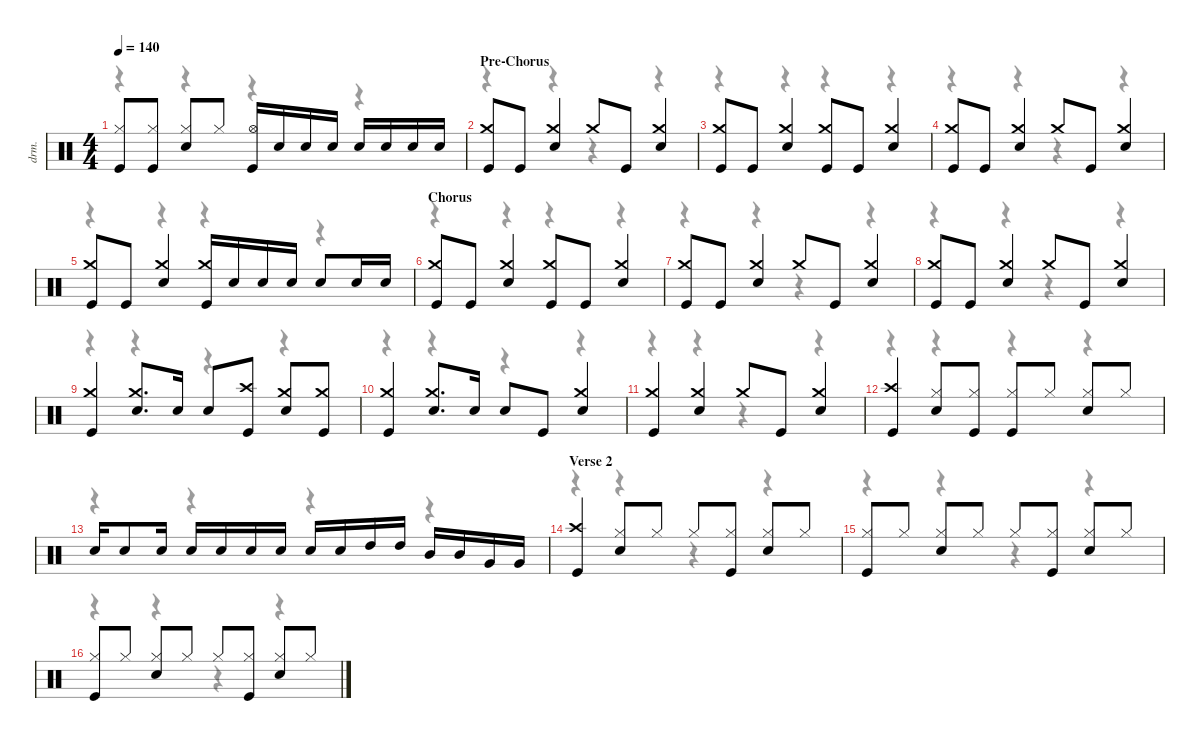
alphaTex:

\defaultSystemsLayout 4
\hideDynamics
\bracketExtendMode nobrackets
\otherSystemsTrackNameOrientation horizontal
\track ("Alex Van Halen (Drums)" "drm.") {instrument percussion}
\staff {score}
\articulation defaults
\voice
\ts (4 4)
\tempo 140
\clef neutral
\ks c
("Hi-Hat (closed)" "Kick (hit)").8{dy f beam Up} ("Hi-Hat (closed)" "Kick (hit)").8{beam Up} ("Hi-Hat (closed)" "Snare (hit) 2").8{beam Up} "Hi-Hat (closed)".8{beam Up} ("Hi-Hat (open)" "Kick (hit)").16{beam Up} "Snare (hit) 2".16{beam Up} "Snare (hit) 2".16{beam Up} "Snare (hit) 2".16{beam Up} "Snare (hit) 2".16{beam Up} "Snare (hit) 2".16{beam Up} "Snare (hit) 2".16{beam Up} "Snare (hit) 2".16{beam Up} |
\section ("" "Pre-Chorus")
("Crash medium (hit)" "Kick (hit)").8{dy mf beam Up} "Kick (hit)".8{dy f beam Up} ("Crash medium (hit)" "Snare (hit) 2").4{dy mf beam Up} "Crash medium (hit)".8{beam Up} "Kick (hit)".8{dy f beam Up} ("Crash medium (hit)" "Snare (hit) 2").4{dy mf beam Up} |
("Crash medium (hit)" "Kick (hit)").8{beam Up} "Kick (hit)".8{dy f beam Up} ("Crash medium (hit)" "Snare (hit) 2").4{dy mf beam Up} ("Crash medium (hit)" "Kick (hit)").8{beam Up} "Kick (hit)".8{dy f beam Up} ("Crash medium (hit)" "Snare (hit) 2").4{dy mf beam Up} |
("Crash medium (hit)" "Kick (hit)").8{beam Up} "Kick (hit)".8{dy f beam Up} ("Crash medium (hit)" "Snare (hit) 2").4{dy mf beam Up} "Crash medium (hit)".8{beam Up} "Kick (hit)".8{dy f beam Up} ("Crash medium (hit)" "Snare (hit) 2").4{dy mf beam Up} |
("Crash medium (hit)" "Kick (hit)").8{beam Up} "Kick (hit)".8{dy f beam Up} ("Crash medium (hit)" "Snare (hit) 2").4{dy mf beam Up} ("Crash medium (hit)" "Kick (hit)").16{beam Up} "Snare (hit) 2".16{dy f beam Up} "Snare (hit) 2".16{beam Up} "Snare (hit) 2".16{beam Up} "Snare (hit) 2".8{beam Up} "Snare (hit) 2".16{beam Up} "Snare (hit) 2".16{beam Up} |
\section ("" "Chorus")
("Crash medium (hit)" "Kick (hit)").8{dy mf beam Up} "Kick (hit)".8{dy f beam Up} ("Crash medium (hit)" "Snare (hit) 2").4{dy mf beam Up} ("Crash medium (hit)" "Kick (hit)").8{beam Up} "Kick (hit)".8{dy f beam Up} ("Crash medium (hit)" "Snare (hit) 2").4{dy mf beam Up} |
("Crash medium (hit)" "Kick (hit)").8{beam Up} "Kick (hit)".8{dy f beam Up} ("Crash medium (hit)" "Snare (hit) 2").4{dy mf beam Up} "Crash medium (hit)".8{beam Up} "Kick (hit)".8{dy f beam Up} ("Crash medium (hit)" "Snare (hit) 2").4{dy mf beam Up} |
("Crash medium (hit)" "Kick (hit)").8{beam Up} "Kick (hit)".8{dy f beam Up} ("Crash medium (hit)" "Snare (hit) 2").4{dy mf beam Up} "Crash medium (hit)".8{beam Up} "Kick (hit)".8{dy f beam Up} ("Crash medium (hit)" "Snare (hit) 2").4{dy mf beam Up} |
("Crash medium (hit)" "Kick (hit)").4{beam Up} ("Crash medium (hit)" "Snare (hit) 2").8{d beam Up} "Snare (hit) 2".16{dy f beam Up} "Snare (hit) 2".8{beam Up} ("Crash high (hit)" "Kick (hit)").8{beam Up} ("Crash medium (hit)" "Snare (hit) 2").8{dy mf beam Up} ("Crash medium (hit)" "Kick (hit)").8{beam Up} |
("Crash medium (hit)" "Kick (hit)").4{beam Up} ("Crash medium (hit)" "Snare (hit) 2").8{d beam Up} "Snare (hit) 2".16{dy f beam Up} "Snare (hit) 2".8{beam Up} "Kick (hit)".8{beam Up} ("Crash medium (hit)" "Snare (hit) 2").4{dy mf beam Up} |
("Crash medium (hit)" "Kick (hit)").4{beam Up} ("Crash medium (hit)" "Snare (hit) 2").4{beam Up} "Crash medium (hit)".8{beam Up} "Kick (hit)".8{dy f beam Up} ("Crash medium (hit)" "Snare (hit) 2").4{dy mf beam Up} |
("Crash high (hit)" "Kick (hit)").4{dy f beam Up} ("Hi-Hat (closed)" "Snare (hit) 2").8{beam Up} ("Hi-Hat (closed)" "Kick (hit)").8{beam Up} ("Hi-Hat (closed)" "Kick (hit)").8{beam Up} "Hi-Hat (closed)".8{beam Up} ("Hi-Hat (closed)" "Snare (hit) 2").8{beam Up} "Hi-Hat (closed)".8{beam Up} |
"Snare (hit) 2".16{beam Up} "Snare (hit) 2".8{beam Up} "Snare (hit) 2".16{beam Up} "Snare (hit) 2".16{beam Up} "Snare (hit) 2".16{beam Up} "Snare (hit) 2".16{beam Up} "Snare (hit) 2".16{beam Up} "Snare (hit) 2".16{beam Up} "Snare (hit) 2".16{beam Up} "High Tom (hit)".16{beam Up} "High Tom (hit)".16{beam Up} "Mid Tom (hit)".16{beam Up} "Mid Tom (hit)".16{beam Up} "Very Low Tom (hit)".16{beam Up} "Very Low Tom (hit)".16{beam Up} |
\section ("" "Verse 2")
("Crash high (hit)" "Kick (hit)").4{beam Up} ("Hi-Hat (closed)" "Snare (hit) 2").8{beam Up} "Hi-Hat (closed)".8{beam Up} "Hi-Hat (closed)".8{beam Up} ("Hi-Hat (closed)" "Kick (hit)").8{beam Up} ("Hi-Hat (closed)" "Snare (hit) 2").8{beam Up} "Hi-Hat (closed)".8{beam Up} |
("Hi-Hat (closed)" "Kick (hit)").8{beam Up} "Hi-Hat (closed)".8{beam Up} ("Hi-Hat (closed)" "Snare (hit) 2").8{beam Up} "Hi-Hat (closed)".8{beam Up} "Hi-Hat (closed)".8{beam Up} ("Hi-Hat (closed)" "Kick (hit)").8{beam Up} ("Hi-Hat (closed)" "Snare (hit) 2").8{beam Up} "Hi-Hat (closed)".8{beam Up} |
("Hi-Hat (closed)" "Kick (hit)").8{beam Up} "Hi-Hat (closed)".8{beam Up} ("Hi-Hat (closed)" "Snare (hit) 2").8{beam Up} "Hi-Hat (closed)".8{beam Up} "Hi-Hat (closed)".8{beam Up} ("Hi-Hat (closed)" "Kick (hit)").8{beam Up} ("Hi-Hat (closed)" "Snare (hit) 2").8{beam Up} "Hi-Hat (closed)".8{beam Up}
\voice
\clef neutral
\ottava regular
\simile none
\ks c
r.4{dy mf beam Down} r.4{beam Down} r.4{beam Down} r.4{beam Down} |
r.4{beam Down} r.4{beam Down} r.4{beam Down} r.4{beam Down} |
r.4{beam Down} r.4{beam Down} r.4{beam Down} r.4{beam Down} |
r.4{beam Down} r.4{beam Down} r.4{beam Down} r.4{beam Down} |
r.4{beam Down} r.4{beam Down} r.4{beam Down} r.4{beam Down} |
r.4{beam Down} r.4{beam Down} r.4{beam Down} r.4{beam Down} |
r.4{beam Down} r.4{beam Down} r.4{beam Down} r.4{beam Down} |
r.4{beam Down} r.4{beam Down} r.4{beam Down} r.4{beam Down} |
r.4{beam Down} r.4{beam Down} r.4{beam Down} r.4{beam Down} |
r.4{beam Down} r.4{beam Down} r.4{beam Down} r.4{beam Down} |
r.4{beam Down} r.4{beam Down} r.4{beam Down} r.4{beam Down} |
r.4{beam Down} r.4{beam Down} r.4{beam Down} r.4{beam Down} |
r.4{beam Down} r.4{beam Down} r.4{beam Down} r.4{beam Down} |
r.4{beam Down} r.4{beam Down} r.4{beam Down} r.4{beam Down} |
r.4{beam Down} r.4{beam Down} r.4{beam Down} r.4{beam Down} |
r.4{beam Down} r.4{beam Down} r.4{beam Down} r.4{beam Down}
